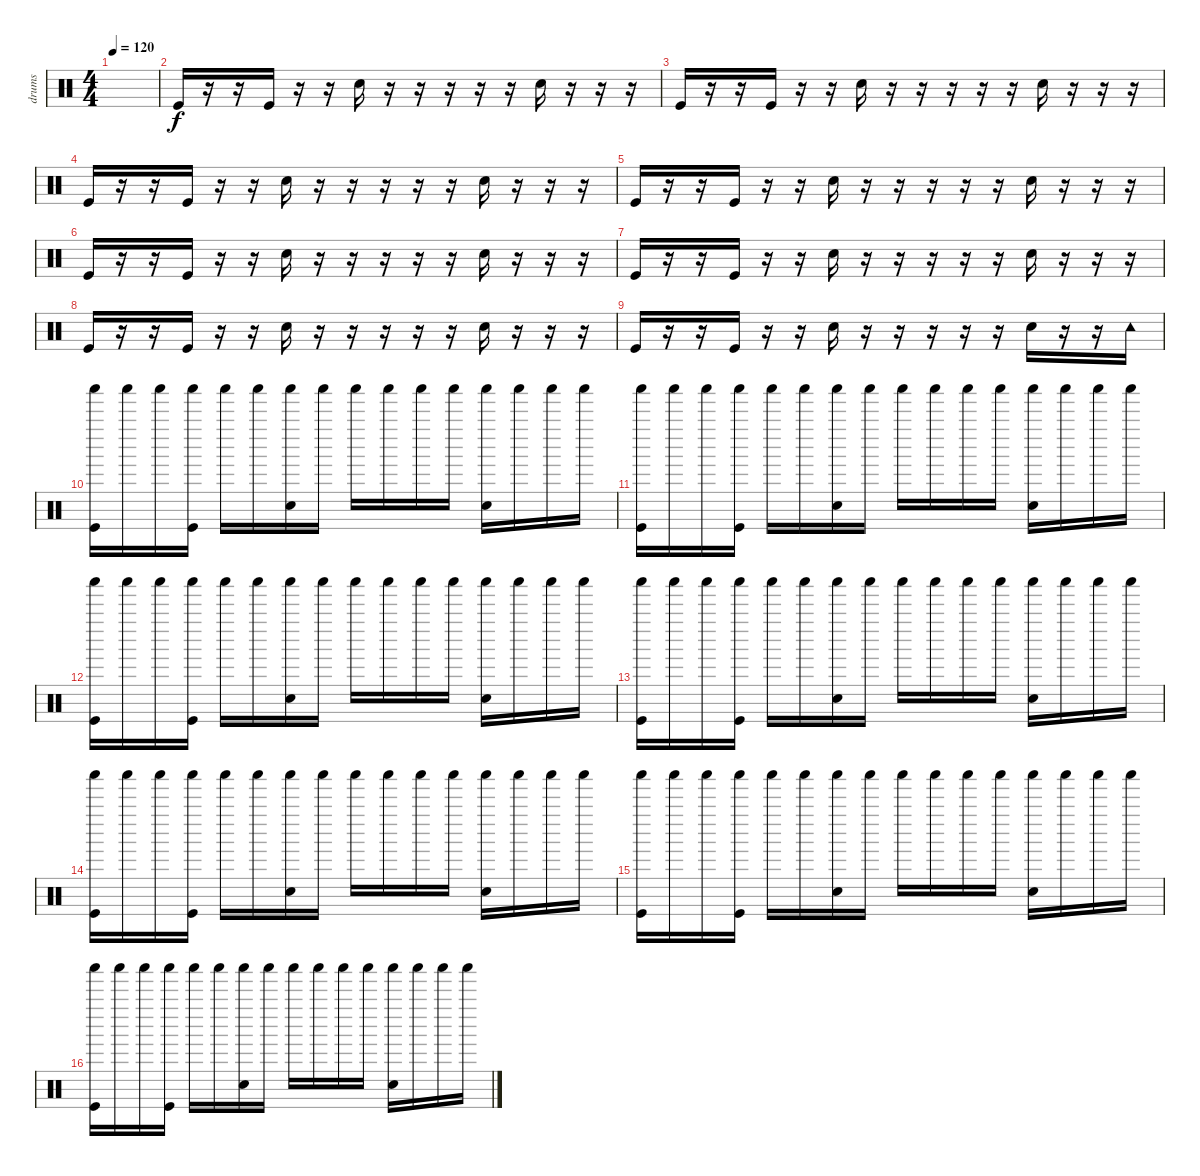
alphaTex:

\track ("drums" "drums") {instrument percussion}
\staff {score}
\articulation defaults
\ts (4 4)
\tempo 120
\clef neutral
\ks c
|
"Kick (hit)".16 r.16 r.16 "Kick (hit)".16 r.16 r.16 "Electric Snare (hit)".16 r.16 r.16 r.16 r.16 r.16 "Electric Snare (hit)".16 r.16 r.16 r.16 |
"Kick (hit)".16 r.16 r.16 "Kick (hit)".16 r.16 r.16 "Electric Snare (hit)".16 r.16 r.16 r.16 r.16 r.16 "Electric Snare (hit)".16 r.16 r.16 r.16 |
"Kick (hit)".16 r.16 r.16 "Kick (hit)".16 r.16 r.16 "Electric Snare (hit)".16 r.16 r.16 r.16 r.16 r.16 "Electric Snare (hit)".16 r.16 r.16 r.16 |
"Kick (hit)".16 r.16 r.16 "Kick (hit)".16 r.16 r.16 "Electric Snare (hit)".16 r.16 r.16 r.16 r.16 r.16 "Electric Snare (hit)".16 r.16 r.16 r.16 |
"Kick (hit)".16 r.16 r.16 "Kick (hit)".16 r.16 r.16 "Electric Snare (hit)".16 r.16 r.16 r.16 r.16 r.16 "Electric Snare (hit)".16 r.16 r.16 r.16 |
"Kick (hit)".16 r.16 r.16 "Kick (hit)".16 r.16 r.16 "Electric Snare (hit)".16 r.16 r.16 r.16 r.16 r.16 "Electric Snare (hit)".16 r.16 r.16 r.16 |
"Kick (hit)".16 r.16 r.16 "Kick (hit)".16 r.16 r.16 "Electric Snare (hit)".16 r.16 r.16 r.16 r.16 r.16 "Electric Snare (hit)".16 r.16 r.16 r.16 |
"Kick (hit)".16 r.16 r.16 "Kick (hit)".16 r.16 r.16 "Electric Snare (hit)".16 r.16 r.16 r.16 r.16 r.16 "Electric Snare (hit)".16 r.16 r.16 "Tambourine (hit)".16 |
("Kick (hit)" "Shaker (hit)").16 "Shaker (hit)".16 "Shaker (hit)".16 ("Kick (hit)" "Shaker (hit)").16 "Shaker (hit)".16 "Shaker (hit)".16 ("Electric Snare (hit)" "Shaker (hit)").16 "Shaker (hit)".16 "Shaker (hit)".16 "Shaker (hit)".16 "Shaker (hit)".16 "Shaker (hit)".16 ("Electric Snare (hit)" "Shaker (hit)").16 "Shaker (hit)".16 "Shaker (hit)".16 "Shaker (hit)".16 |
("Kick (hit)" "Shaker (hit)").16 "Shaker (hit)".16 "Shaker (hit)".16 ("Kick (hit)" "Shaker (hit)").16 "Shaker (hit)".16 "Shaker (hit)".16 ("Electric Snare (hit)" "Shaker (hit)").16 "Shaker (hit)".16 "Shaker (hit)".16 "Shaker (hit)".16 "Shaker (hit)".16 "Shaker (hit)".16 ("Electric Snare (hit)" "Shaker (hit)").16 "Shaker (hit)".16 "Shaker (hit)".16 "Shaker (hit)".16 |
("Kick (hit)" "Shaker (hit)").16 "Shaker (hit)".16 "Shaker (hit)".16 ("Kick (hit)" "Shaker (hit)").16 "Shaker (hit)".16 "Shaker (hit)".16 ("Electric Snare (hit)" "Shaker (hit)").16 "Shaker (hit)".16 "Shaker (hit)".16 "Shaker (hit)".16 "Shaker (hit)".16 "Shaker (hit)".16 ("Electric Snare (hit)" "Shaker (hit)").16 "Shaker (hit)".16 "Shaker (hit)".16 "Shaker (hit)".16 |
("Kick (hit)" "Shaker (hit)").16 "Shaker (hit)".16 "Shaker (hit)".16 ("Kick (hit)" "Shaker (hit)").16 "Shaker (hit)".16 "Shaker (hit)".16 ("Electric Snare (hit)" "Shaker (hit)").16 "Shaker (hit)".16 "Shaker (hit)".16 "Shaker (hit)".16 "Shaker (hit)".16 "Shaker (hit)".16 ("Electric Snare (hit)" "Shaker (hit)").16 "Shaker (hit)".16 "Shaker (hit)".16 "Shaker (hit)".16 |
("Kick (hit)" "Shaker (hit)").16 "Shaker (hit)".16 "Shaker (hit)".16 ("Kick (hit)" "Shaker (hit)").16 "Shaker (hit)".16 "Shaker (hit)".16 ("Electric Snare (hit)" "Shaker (hit)").16 "Shaker (hit)".16 "Shaker (hit)".16 "Shaker (hit)".16 "Shaker (hit)".16 "Shaker (hit)".16 ("Electric Snare (hit)" "Shaker (hit)").16 "Shaker (hit)".16 "Shaker (hit)".16 "Shaker (hit)".16 |
("Kick (hit)" "Shaker (hit)").16 "Shaker (hit)".16 "Shaker (hit)".16 ("Kick (hit)" "Shaker (hit)").16 "Shaker (hit)".16 "Shaker (hit)".16 ("Electric Snare (hit)" "Shaker (hit)").16 "Shaker (hit)".16 "Shaker (hit)".16 "Shaker (hit)".16 "Shaker (hit)".16 "Shaker (hit)".16 ("Electric Snare (hit)" "Shaker (hit)").16 "Shaker (hit)".16 "Shaker (hit)".16 "Shaker (hit)".16 |
("Kick (hit)" "Shaker (hit)").16 "Shaker (hit)".16 "Shaker (hit)".16 ("Kick (hit)" "Shaker (hit)").16 "Shaker (hit)".16 "Shaker (hit)".16 ("Electric Snare (hit)" "Shaker (hit)").16 "Shaker (hit)".16 "Shaker (hit)".16 "Shaker (hit)".16 "Shaker (hit)".16 "Shaker (hit)".16 ("Electric Snare (hit)" "Shaker (hit)").16 "Shaker (hit)".16 "Shaker (hit)".16 "Shaker (hit)".16
